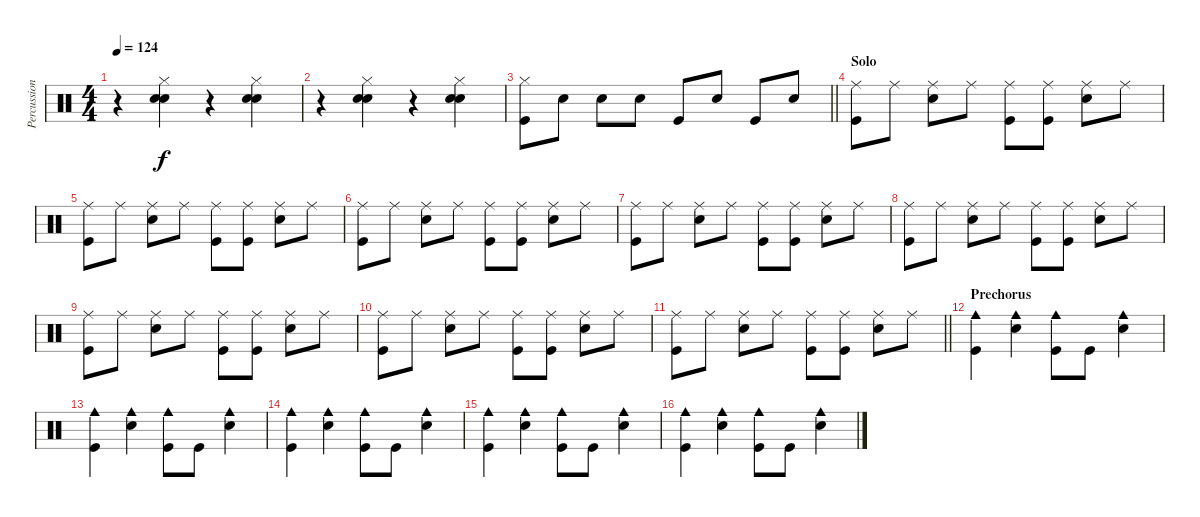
\track ("Percussion" "Percussion") {instrument percussion}
\staff {score}
\articulation defaults
\ts (4 4)
\tempo 124
\clef neutral
\ks c
r.4{dy f} ("Snare (hit) 2" "Electric Snare (hit)" "Hi-Hat (closed)").4 r.4 ("Snare (hit) 2" "Electric Snare (hit)" "Hi-Hat (closed)").4 |
r.4 ("Snare (hit) 2" "Electric Snare (hit)" "Hi-Hat (closed)").4 r.4 ("Snare (hit) 2" "Electric Snare (hit)" "Hi-Hat (closed)").4 |
\barLineRight lightlight
("Hi-Hat (closed)" "Kick (hit)").8 "Electric Snare (hit)".8 "Electric Snare (hit)".8 "Electric Snare (hit)".8 "Kick (hit)".8 "Electric Snare (hit)".8 "Kick (hit)".8 "Electric Snare (hit)".8 |
\section ("" "Solo")
("Ride (middle)" "Kick (hit)").8 "Ride (middle)".8 ("Ride (middle)" "Electric Snare (hit)").8 "Ride (middle)".8 ("Ride (middle)" "Kick (hit)").8 ("Ride (middle)" "Kick (hit)").8 ("Ride (middle)" "Electric Snare (hit)").8 "Ride (middle)".8 |
("Ride (middle)" "Kick (hit)").8 "Ride (middle)".8 ("Ride (middle)" "Electric Snare (hit)").8 "Ride (middle)".8 ("Ride (middle)" "Kick (hit)").8 ("Ride (middle)" "Kick (hit)").8 ("Ride (middle)" "Electric Snare (hit)").8 "Ride (middle)".8 |
("Ride (middle)" "Kick (hit)").8 "Ride (middle)".8 ("Ride (middle)" "Electric Snare (hit)").8 "Ride (middle)".8 ("Ride (middle)" "Kick (hit)").8 ("Ride (middle)" "Kick (hit)").8 ("Ride (middle)" "Electric Snare (hit)").8 "Ride (middle)".8 |
("Ride (middle)" "Kick (hit)").8 "Ride (middle)".8 ("Ride (middle)" "Electric Snare (hit)").8 "Ride (middle)".8 ("Ride (middle)" "Kick (hit)").8 ("Ride (middle)" "Kick (hit)").8 ("Ride (middle)" "Electric Snare (hit)").8 "Ride (middle)".8 |
("Ride (middle)" "Kick (hit)").8 "Ride (middle)".8 ("Ride (middle)" "Electric Snare (hit)").8 "Ride (middle)".8 ("Ride (middle)" "Kick (hit)").8 ("Ride (middle)" "Kick (hit)").8 ("Ride (middle)" "Electric Snare (hit)").8 "Ride (middle)".8 |
("Ride (middle)" "Kick (hit)").8 "Ride (middle)".8 ("Ride (middle)" "Electric Snare (hit)").8 "Ride (middle)".8 ("Ride (middle)" "Kick (hit)").8 ("Ride (middle)" "Kick (hit)").8 ("Ride (middle)" "Electric Snare (hit)").8 "Ride (middle)".8 |
("Ride (middle)" "Kick (hit)").8 "Ride (middle)".8 ("Ride (middle)" "Electric Snare (hit)").8 "Ride (middle)".8 ("Ride (middle)" "Kick (hit)").8 ("Ride (middle)" "Kick (hit)").8 ("Ride (middle)" "Electric Snare (hit)").8 "Ride (middle)".8 |
\barLineRight lightlight
("Ride (middle)" "Kick (hit)").8 "Ride (middle)".8 ("Ride (middle)" "Electric Snare (hit)").8 "Ride (middle)".8 ("Ride (middle)" "Kick (hit)").8 ("Ride (middle)" "Kick (hit)").8 ("Ride (middle)" "Electric Snare (hit)").8 "Ride (middle)".8 |
\section ("" "Prechorus")
("Cowbell medium (hit)" "Kick (hit)").4 ("Cowbell medium (hit)" "Electric Snare (hit)").4 ("Cowbell medium (hit)" "Kick (hit)").8 "Kick (hit)".8 ("Cowbell medium (hit)" "Electric Snare (hit)").4 |
("Cowbell medium (hit)" "Kick (hit)").4 ("Cowbell medium (hit)" "Electric Snare (hit)").4 ("Cowbell medium (hit)" "Kick (hit)").8 "Kick (hit)".8 ("Cowbell medium (hit)" "Electric Snare (hit)").4 |
("Cowbell medium (hit)" "Kick (hit)").4 ("Cowbell medium (hit)" "Electric Snare (hit)").4 ("Cowbell medium (hit)" "Kick (hit)").8 "Kick (hit)".8 ("Cowbell medium (hit)" "Electric Snare (hit)").4 |
("Cowbell medium (hit)" "Kick (hit)").4 ("Cowbell medium (hit)" "Electric Snare (hit)").4 ("Cowbell medium (hit)" "Kick (hit)").8 "Kick (hit)".8 ("Cowbell medium (hit)" "Electric Snare (hit)").4 |
("Cowbell medium (hit)" "Kick (hit)").4 ("Cowbell medium (hit)" "Electric Snare (hit)").4 ("Cowbell medium (hit)" "Kick (hit)").8 "Kick (hit)".8 ("Cowbell medium (hit)" "Electric Snare (hit)").4
